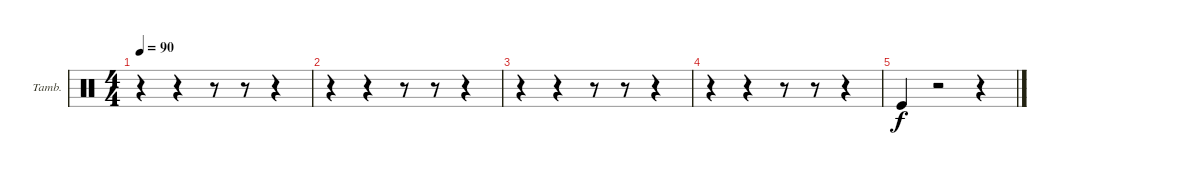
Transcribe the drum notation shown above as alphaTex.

\bracketExtendMode groupsimilarinstruments
\firstSystemTrackNameOrientation horizontal
\otherSystemsTrackNameOrientation horizontal
\track ("Tambourine" "Tamb.") {instrument percussion}
\staff {score}
\articulation defaults
\ts (4 4)
\tempo 90
\clef neutral
\ks c
r.4{dy f} r.4 r.8 r.8 r.4 |
r.4 r.4 r.8 r.8 r.4 |
r.4 r.4 r.8 r.8 r.4 |
r.4 r.4 r.8 r.8 r.4 |
"Kick (hit)".4 r.2 r.4
